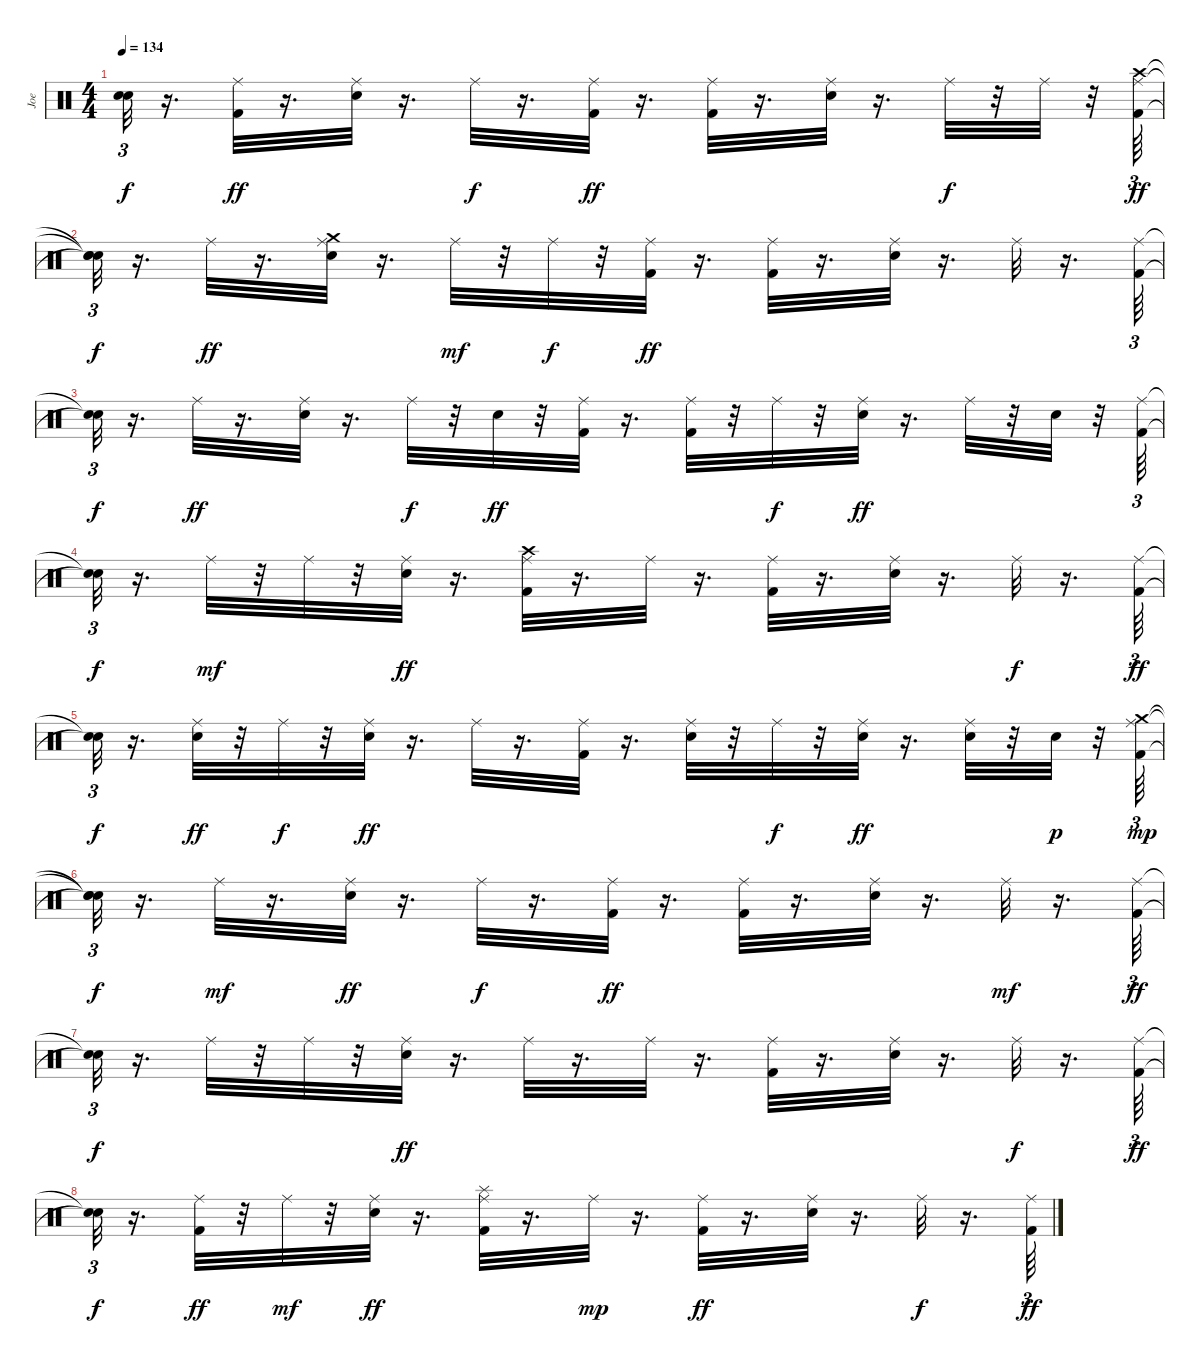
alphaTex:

\track ("Joe" "Joe") {instrument percussion}
\staff {score}
\articulation defaults
\ts (4 4)
\tempo 134
\clef neutral
\ks c
("Snare (hit)"{t} "Snare (hit)"{t}).32{tu (3 2) dy f} r.16{d} ("Kick (hit) 2" "Ride (middle)").32{dy ff} r.16{d} ("Electric Snare (hit)" "Ride (middle)").32 r.16{d} "Ride (middle)".32{dy f} r.16{d} ("Kick (hit) 2" "Ride (middle)").32{dy ff} r.16{d} ("Kick (hit) 2" "Ride (middle)").32 r.16{d} ("Electric Snare (hit)" "Ride (middle)").32 r.16{d} "Ride (middle)".32{dy f} r.32 "Ride (middle)".32 r.32 ("Crash high (hit)" "Kick (hit) 2" "Ride (middle)").64{tu (3 2) dy ff} |
("Snare (hit)"{t} "Snare (hit)"{t} "Snare (hit)"{t}).32{tu (3 2) dy f} r.16{d} "Ride (middle)".32{dy ff} r.16{d} ("Crash medium (hit)" "Electric Snare (hit)" "Ride (middle)").32 r.16{d} "Ride (middle)".32{dy mf} r.32 "Ride (middle)".32{dy f} r.32 ("Ride (middle)" "Kick (hit) 2").32{dy ff} r.16{d} ("Ride (middle)" "Kick (hit) 2").32 r.16{d} ("Electric Snare (hit)" "Ride (middle)").32 r.16{d} "Ride (middle)".32 r.16{d} ("Kick (hit) 2" "Ride (middle)").64{tu (3 2)} |
("Snare (hit)"{t} "Snare (hit)"{t}).32{tu (3 2) dy f} r.16{d} "Ride (middle)".32{dy ff} r.16{d} ("Electric Snare (hit)" "Ride (middle)").32 r.16{d} "Ride (middle)".32{dy f} r.32 "Electric Snare (hit)".32{dy ff} r.32 ("Kick (hit) 2" "Ride (middle)").32 r.16{d} ("Kick (hit) 2" "Ride (middle)").32 r.32 "Ride (middle)".32{dy f} r.32 ("Electric Snare (hit)" "Ride (middle)").32{dy ff} r.16{d} "Ride (middle)".32 r.32 "Electric Snare (hit)".32 r.32 ("Ride (middle)" "Kick (hit) 2").64{tu (3 2)} |
("Snare (hit)"{t} "Snare (hit)"{t}).32{tu (3 2) dy f} r.16{d} "Ride (middle)".32{dy mf} r.32 "Ride (middle)".32 r.32 ("Ride (middle)" "Electric Snare (hit)").32{dy ff} r.16{d} ("Ride (middle)" "Crash high (hit)" "Kick (hit) 2").32 r.16{d} "Ride (middle)".32 r.16{d} ("Ride (middle)" "Kick (hit) 2").32 r.16{d} ("Electric Snare (hit)" "Ride (middle)").32 r.16{d} "Ride (middle)".32{dy f} r.16{d} ("Kick (hit) 2" "Ride (middle)").64{tu (3 2) dy ff} |
("Snare (hit)"{t} "Snare (hit)"{t}).32{tu (3 2) dy f} r.16{d} ("Ride (middle)" "Electric Snare (hit)").32{dy ff} r.32 "Ride (middle)".32{dy f} r.32 ("Electric Snare (hit)" "Ride (middle)").32{dy ff} r.16{d} "Ride (middle)".32 r.16{d} ("Ride (middle)" "Kick (hit) 2").32 r.16{d} ("Ride (middle)" "Electric Snare (hit)").32 r.32 "Ride (middle)".32{dy f} r.32 ("Ride (middle)" "Electric Snare (hit)").32{dy ff} r.16{d} ("Ride (middle)" "Electric Snare (hit)").32 r.32 "Electric Snare (hit)".32{dy p} r.32 ("Ride (middle)" "Kick (hit) 2" "Crash medium (hit)").64{tu (3 2) dy mp} |
("Snare (hit)"{t} "Snare (hit)"{t} "Snare (hit)"{t}).32{tu (3 2) dy f} r.16{d} "Ride (middle)".32{dy mf} r.16{d} ("Electric Snare (hit)" "Ride (middle)").32{dy ff} r.16{d} "Ride (middle)".32{dy f} r.16{d} ("Ride (middle)" "Kick (hit) 2").32{dy ff} r.16{d} ("Ride (middle)" "Kick (hit) 2").32 r.16{d} ("Electric Snare (hit)" "Ride (middle)").32 r.16{d} "Ride (middle)".32{dy mf} r.16{d} ("Kick (hit) 2" "Ride (middle)").64{tu (3 2) dy ff} |
("Snare (hit)"{t} "Snare (hit)"{t}).32{tu (3 2) dy f} r.16{d} "Ride (middle)".32 r.32 "Ride (middle)".32 r.32 ("Electric Snare (hit)" "Ride (middle)").32{dy ff} r.16{d} "Ride (middle)".32 r.16{d} "Ride (middle)".32 r.16{d} ("Ride (middle)" "Kick (hit) 2").32 r.16{d} ("Ride (middle)" "Electric Snare (hit)").32 r.16{d} "Ride (middle)".32{dy f} r.16{d} ("Kick (hit) 2" "Ride (middle)").64{tu (3 2) dy ff} |
("Snare (hit)"{t} "Snare (hit)"{t}).32{tu (3 2) dy f} r.16{d} ("Ride (middle)" "Kick (hit) 2").32{dy ff} r.32 "Ride (middle)".32{dy mf} r.32 ("Electric Snare (hit)" "Ride (middle)").32{dy ff} r.16{d} ("Ride (middle)" "Kick (hit) 2" "Splash (hit)").32 r.16{d} "Ride (middle)".32{dy mp} r.16{d} ("Ride (middle)" "Kick (hit) 2").32{dy ff} r.16{d} ("Ride (middle)" "Electric Snare (hit)").32 r.16{d} "Ride (middle)".32{dy f} r.16{d} ("Ride (middle)" "Kick (hit) 2").64{tu (3 2) dy ff}
